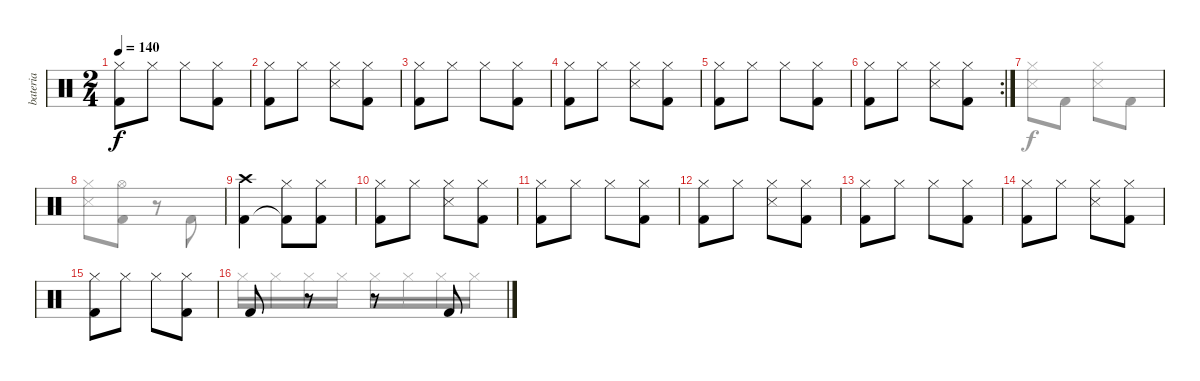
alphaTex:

\track ("bateria" "bateria") {instrument percussion}
\staff {score}
\articulation defaults
\voice
\ts (2 4)
\tempo 140
\clef neutral
\ks c
("Hi-Hat (closed)" "Kick (hit) 2").8{dy f} "Hi-Hat (closed)".8 "Hi-Hat (closed)".8 ("Hi-Hat (closed)" "Kick (hit) 2").8 |
("Hi-Hat (closed)" "Kick (hit) 2").8 "Hi-Hat (closed)".8 ("Hi-Hat (closed)" "Snare (side stick) 3").8 ("Hi-Hat (closed)" "Kick (hit) 2").8 |
("Hi-Hat (closed)" "Kick (hit) 2").8 "Hi-Hat (closed)".8 "Hi-Hat (closed)".8 ("Hi-Hat (closed)" "Kick (hit) 2").8 |
("Hi-Hat (closed)" "Kick (hit) 2").8 "Hi-Hat (closed)".8 ("Hi-Hat (closed)" "Snare (side stick) 3").8 ("Hi-Hat (closed)" "Kick (hit) 2").8 |
("Hi-Hat (closed)" "Kick (hit) 2").8 "Hi-Hat (closed)".8 "Hi-Hat (closed)".8 ("Hi-Hat (closed)" "Kick (hit) 2").8 |
\rc 2
("Hi-Hat (closed)" "Kick (hit) 2").8 "Hi-Hat (closed)".8 ("Hi-Hat (closed)" "Snare (side stick) 3").8 ("Hi-Hat (closed)" "Kick (hit) 2").8 |
|
|
("Crash high (hit)" "Kick (hit) 2").4 ("Hi-Hat (closed)" "Kick (hit) 2"{t}).8 ("Hi-Hat (closed)" "Kick (hit) 2").8 |
("Hi-Hat (closed)" "Kick (hit) 2").8 "Hi-Hat (closed)".8 ("Hi-Hat (closed)" "Snare (side stick) 3").8 ("Hi-Hat (closed)" "Kick (hit) 2").8 |
("Hi-Hat (closed)" "Kick (hit) 2").8 "Hi-Hat (closed)".8 "Hi-Hat (closed)".8 ("Hi-Hat (closed)" "Kick (hit) 2").8 |
("Hi-Hat (closed)" "Kick (hit) 2").8 "Hi-Hat (closed)".8 ("Hi-Hat (closed)" "Snare (side stick) 3").8 ("Hi-Hat (closed)" "Kick (hit) 2").8 |
("Hi-Hat (closed)" "Kick (hit) 2").8 "Hi-Hat (closed)".8 "Hi-Hat (closed)".8 ("Hi-Hat (closed)" "Kick (hit) 2").8 |
("Hi-Hat (closed)" "Kick (hit) 2").8 "Hi-Hat (closed)".8 ("Hi-Hat (closed)" "Snare (side stick) 3").8 ("Hi-Hat (closed)" "Kick (hit) 2").8 |
("Hi-Hat (closed)" "Kick (hit) 2").8 "Hi-Hat (closed)".8 "Hi-Hat (closed)".8 ("Hi-Hat (closed)" "Kick (hit) 2").8 |
"Kick (hit) 2".8 r.8 r.8 "Kick (hit) 2".8
\voice
\clef neutral
\ottava regular
\simile none
\ks c
|
|
|
|
|
|
("Hi-Hat (closed)" "Snare (side stick) 3").8 "Kick (hit) 2".8 ("Hi-Hat (closed)" "Snare (side stick) 3").8 "Kick (hit) 2".8 |
("Hi-Hat (closed)" "Snare (side stick) 3").8 ("Hi-Hat (open)" "Kick (hit) 2").8 r.8 "Kick (hit) 2".8 |
|
|
|
|
|
|
|
"Hi-Hat (closed)".16 "Hi-Hat (closed)".16 "Hi-Hat (closed)".16 "Hi-Hat (closed)".16 "Hi-Hat (closed)".16 "Hi-Hat (closed)".16 "Hi-Hat (closed)".16 "Hi-Hat (closed)".16
